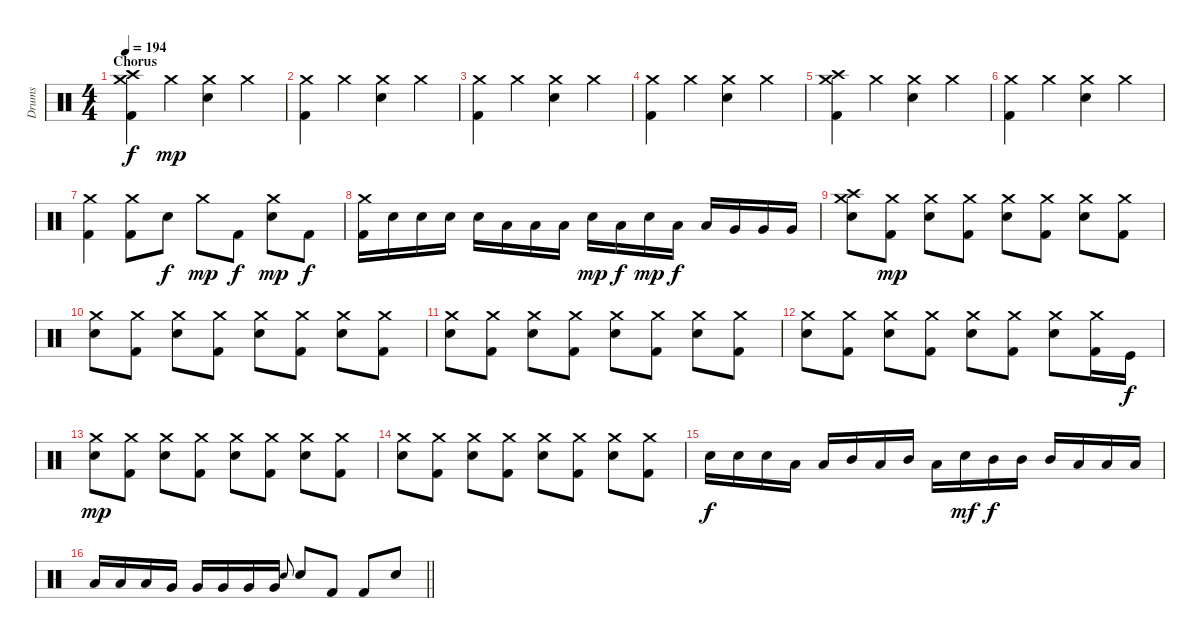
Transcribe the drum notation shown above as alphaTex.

\track ("Drums" "Drums") {instrument percussion}
\staff {score}
\articulation defaults
\ts (4 4)
\section ("" "Chorus")
\tempo 194
\clef neutral
\ks c
("Crash medium (hit)" "Crash high (hit)" "Kick (hit) 2").4{dy f} "Crash medium (hit)".4{dy mp} ("Crash medium (hit)" "Snare (hit) 2").4 "Crash medium (hit)".4 |
("Crash medium (hit)" "Kick (hit) 2").4 "Crash medium (hit)".4 ("Crash medium (hit)" "Snare (hit) 2").4 "Crash medium (hit)".4 |
("Crash medium (hit)" "Kick (hit) 2").4 "Crash medium (hit)".4 ("Crash medium (hit)" "Snare (hit) 2").4 "Crash medium (hit)".4 |
("Crash medium (hit)" "Kick (hit) 2").4 "Crash medium (hit)".4 ("Crash medium (hit)" "Snare (hit) 2").4 "Crash medium (hit)".4 |
("Crash medium (hit)" "Crash high (hit)" "Kick (hit) 2").4 "Crash medium (hit)".4 ("Crash medium (hit)" "Snare (hit) 2").4 "Crash medium (hit)".4 |
("Crash medium (hit)" "Kick (hit) 2").4 "Crash medium (hit)".4 ("Crash medium (hit)" "Snare (hit) 2").4 "Crash medium (hit)".4 |
("Crash medium (hit)" "Kick (hit) 2").4 ("Crash medium (hit)" "Kick (hit) 2").8 "Snare (hit) 2".8{dy f} "Crash medium (hit)".8{dy mp} "Kick (hit) 2".8{dy f} ("Crash medium (hit)" "Snare (hit) 2").8{dy mp} "Kick (hit) 2".8{dy f} |
("Crash medium (hit)" "Kick (hit) 2").16 "Snare (hit) 2".16 "Snare (hit) 2".16 "Snare (hit) 2".16 "Snare (hit) 2".16 "Low Tom (hit)".16 "Low Tom (hit)".16 "Low Tom (hit)".16 "Snare (hit) 2".16{dy mp} "Low Tom (hit)".16{dy f} "Snare (hit) 2".16{dy mp} "Low Tom (hit)".16{dy f} "Low Tom (hit)".16 "Very Low Tom (hit)".16 "Very Low Tom (hit)".16 "Very Low Tom (hit)".16 |
("Crash medium (hit)" "Crash high (hit)" "Snare (hit) 2").8 ("Crash medium (hit)" "Kick (hit) 2").8{dy mp} ("Crash medium (hit)" "Snare (hit) 2").8 ("Crash medium (hit)" "Kick (hit) 2").8 ("Crash medium (hit)" "Snare (hit) 2").8 ("Crash medium (hit)" "Kick (hit) 2").8 ("Crash medium (hit)" "Snare (hit) 2").8 ("Crash medium (hit)" "Kick (hit) 2").8 |
("Crash medium (hit)" "Snare (hit) 2").8 ("Crash medium (hit)" "Kick (hit) 2").8 ("Crash medium (hit)" "Snare (hit) 2").8 ("Crash medium (hit)" "Kick (hit) 2").8 ("Crash medium (hit)" "Snare (hit) 2").8 ("Crash medium (hit)" "Kick (hit) 2").8 ("Crash medium (hit)" "Snare (hit) 2").8 ("Crash medium (hit)" "Kick (hit) 2").8 |
("Crash medium (hit)" "Snare (hit) 2").8 ("Crash medium (hit)" "Kick (hit) 2").8 ("Crash medium (hit)" "Snare (hit) 2").8 ("Crash medium (hit)" "Kick (hit) 2").8 ("Crash medium (hit)" "Snare (hit) 2").8 ("Crash medium (hit)" "Kick (hit) 2").8 ("Crash medium (hit)" "Snare (hit) 2").8 ("Crash medium (hit)" "Kick (hit) 2").8 |
("Crash medium (hit)" "Snare (hit) 2").8 ("Crash medium (hit)" "Kick (hit) 2").8 ("Crash medium (hit)" "Snare (hit) 2").8 ("Crash medium (hit)" "Kick (hit) 2").8 ("Crash medium (hit)" "Snare (hit) 2").8 ("Crash medium (hit)" "Kick (hit) 2").8 ("Crash medium (hit)" "Snare (hit) 2").8 ("Crash medium (hit)" "Kick (hit) 2").16 "Kick (hit)".16{dy f} |
("Crash medium (hit)" "Snare (hit) 2").8{dy mp} ("Crash medium (hit)" "Kick (hit) 2").8 ("Crash medium (hit)" "Snare (hit) 2").8 ("Crash medium (hit)" "Kick (hit) 2").8 ("Crash medium (hit)" "Snare (hit) 2").8 ("Crash medium (hit)" "Kick (hit) 2").8 ("Crash medium (hit)" "Snare (hit) 2").8 ("Crash medium (hit)" "Kick (hit) 2").8 |
("Crash medium (hit)" "Snare (hit) 2").8 ("Crash medium (hit)" "Kick (hit) 2").8 ("Crash medium (hit)" "Snare (hit) 2").8 ("Crash medium (hit)" "Kick (hit) 2").8 ("Crash medium (hit)" "Snare (hit) 2").8 ("Crash medium (hit)" "Kick (hit) 2").8 ("Crash medium (hit)" "Snare (hit) 2").8 ("Crash medium (hit)" "Kick (hit) 2").8 |
"Snare (hit) 2".16{dy f} "Snare (hit) 2".16 "Snare (hit) 2".16 "Low Tom (hit)".16 "Low Tom (hit)".16 "Mid Tom (hit)".16 "Low Tom (hit)".16 "Mid Tom (hit)".16 "Low Tom (hit)".16 "Snare (hit) 2".16{dy mf} "Mid Tom (hit)".16{dy f} "Mid Tom (hit)".16 "Mid Tom (hit)".16 "Low Tom (hit)".16 "Low Tom (hit)".16 "Low Tom (hit)".16 |
\barLineRight lightlight "Low Tom (hit)".16 "Low Tom (hit)".16 "Low Tom (hit)".16 "Very Low Tom (hit)".16 "Very Low Tom (hit)".16 "Very Low Tom (hit)".16 "Very Low Tom (hit)".16 "Very Low Tom (hit)".16 "Snare (hit) 2".8{gr onbeat} "Snare (hit) 2".8 "Kick (hit) 2".8 "Kick (hit) 2".8 "Snare (hit) 2".8
